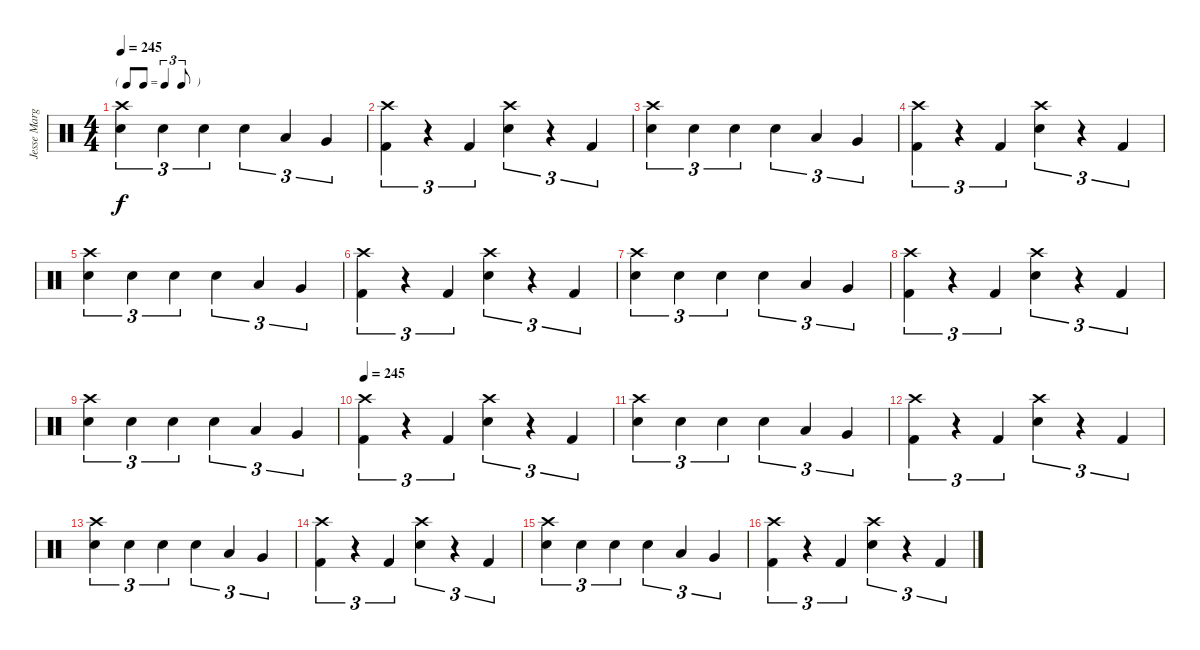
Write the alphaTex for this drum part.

\track ("Jesse Margera" "Jesse Marg") {instrument percussion}
\staff {score}
\articulation defaults
\ts (4 4)
\tf triplet8th
\tempo 245
\clef neutral
\ks c
("Crash high (hit)" "Electric Snare (hit)").4{tu (3 2) dy f} "Electric Snare (hit)".4{tu (3 2)} "Electric Snare (hit)".4{tu (3 2)} "Electric Snare (hit)".4{tu (3 2)} "Low Tom (hit)".4{tu (3 2)} "Very Low Tom (hit)".4{tu (3 2)} |
("Crash high (hit)" "Kick (hit) 2").4{tu (3 2)} r.4{tu (3 2)} "Kick (hit) 2".4{tu (3 2)} ("Crash high (hit)" "Electric Snare (hit)").4{tu (3 2)} r.4{tu (3 2)} "Kick (hit) 2".4{tu (3 2)} |
("Crash high (hit)" "Electric Snare (hit)").4{tu (3 2)} "Electric Snare (hit)".4{tu (3 2)} "Electric Snare (hit)".4{tu (3 2)} "Electric Snare (hit)".4{tu (3 2)} "Low Tom (hit)".4{tu (3 2)} "Very Low Tom (hit)".4{tu (3 2)} |
("Crash high (hit)" "Kick (hit) 2").4{tu (3 2)} r.4{tu (3 2)} "Kick (hit) 2".4{tu (3 2)} ("Crash high (hit)" "Electric Snare (hit)").4{tu (3 2)} r.4{tu (3 2)} "Kick (hit) 2".4{tu (3 2)} |
("Crash high (hit)" "Electric Snare (hit)").4{tu (3 2)} "Electric Snare (hit)".4{tu (3 2)} "Electric Snare (hit)".4{tu (3 2)} "Electric Snare (hit)".4{tu (3 2)} "Low Tom (hit)".4{tu (3 2)} "Very Low Tom (hit)".4{tu (3 2)} |
("Crash high (hit)" "Kick (hit) 2").4{tu (3 2)} r.4{tu (3 2)} "Kick (hit) 2".4{tu (3 2)} ("Crash high (hit)" "Electric Snare (hit)").4{tu (3 2)} r.4{tu (3 2)} "Kick (hit) 2".4{tu (3 2)} |
("Crash high (hit)" "Electric Snare (hit)").4{tu (3 2)} "Electric Snare (hit)".4{tu (3 2)} "Electric Snare (hit)".4{tu (3 2)} "Electric Snare (hit)".4{tu (3 2)} "Low Tom (hit)".4{tu (3 2)} "Very Low Tom (hit)".4{tu (3 2)} |
("Crash high (hit)" "Kick (hit) 2").4{tu (3 2)} r.4{tu (3 2)} "Kick (hit) 2".4{tu (3 2)} ("Crash high (hit)" "Electric Snare (hit)").4{tu (3 2)} r.4{tu (3 2)} "Kick (hit) 2".4{tu (3 2)} |
("Crash high (hit)" "Electric Snare (hit)").4{tu (3 2)} "Electric Snare (hit)".4{tu (3 2)} "Electric Snare (hit)".4{tu (3 2)} "Electric Snare (hit)".4{tu (3 2)} "Low Tom (hit)".4{tu (3 2)} "Very Low Tom (hit)".4{tu (3 2)} |
\tempo 245
("Crash high (hit)" "Kick (hit) 2").4{tu (3 2)} r.4{tu (3 2)} "Kick (hit) 2".4{tu (3 2)} ("Crash high (hit)" "Electric Snare (hit)").4{tu (3 2)} r.4{tu (3 2)} "Kick (hit) 2".4{tu (3 2)} |
("Crash high (hit)" "Electric Snare (hit)").4{tu (3 2)} "Electric Snare (hit)".4{tu (3 2)} "Electric Snare (hit)".4{tu (3 2)} "Electric Snare (hit)".4{tu (3 2)} "Low Tom (hit)".4{tu (3 2)} "Very Low Tom (hit)".4{tu (3 2)} |
("Crash high (hit)" "Kick (hit) 2").4{tu (3 2)} r.4{tu (3 2)} "Kick (hit) 2".4{tu (3 2)} ("Crash high (hit)" "Electric Snare (hit)").4{tu (3 2)} r.4{tu (3 2)} "Kick (hit) 2".4{tu (3 2)} |
("Crash high (hit)" "Electric Snare (hit)").4{tu (3 2)} "Electric Snare (hit)".4{tu (3 2)} "Electric Snare (hit)".4{tu (3 2)} "Electric Snare (hit)".4{tu (3 2)} "Low Tom (hit)".4{tu (3 2)} "Very Low Tom (hit)".4{tu (3 2)} |
("Crash high (hit)" "Kick (hit) 2").4{tu (3 2)} r.4{tu (3 2)} "Kick (hit) 2".4{tu (3 2)} ("Crash high (hit)" "Electric Snare (hit)").4{tu (3 2)} r.4{tu (3 2)} "Kick (hit) 2".4{tu (3 2)} |
("Crash high (hit)" "Electric Snare (hit)").4{tu (3 2)} "Electric Snare (hit)".4{tu (3 2)} "Electric Snare (hit)".4{tu (3 2)} "Electric Snare (hit)".4{tu (3 2)} "Low Tom (hit)".4{tu (3 2)} "Very Low Tom (hit)".4{tu (3 2)} |
("Crash high (hit)" "Kick (hit) 2").4{tu (3 2)} r.4{tu (3 2)} "Kick (hit) 2".4{tu (3 2)} ("Crash high (hit)" "Electric Snare (hit)").4{tu (3 2)} r.4{tu (3 2)} "Kick (hit) 2".4{tu (3 2)}
